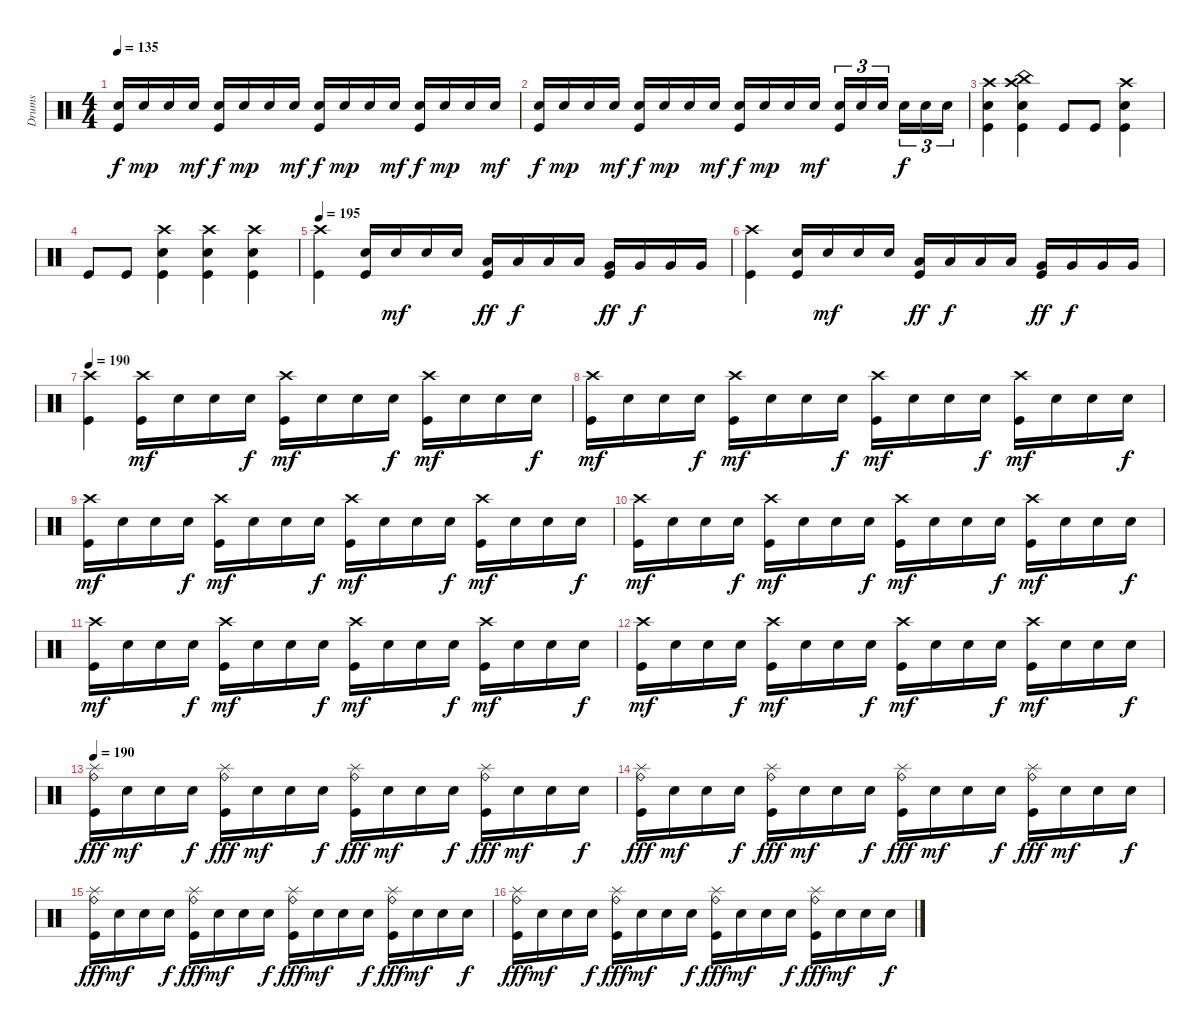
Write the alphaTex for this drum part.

\track ("Drums" "Drums") {instrument percussion}
\staff {score}
\articulation defaults
\ts (4 4)
\tempo 135
\clef neutral
\ks c
("Electric Snare (hit)" "Kick (hit)").16{dy f} "Electric Snare (hit)".16{dy mp} "Electric Snare (hit)".16 "Electric Snare (hit)".16{dy mf} ("Electric Snare (hit)" "Kick (hit)").16{dy f} "Electric Snare (hit)".16{dy mp} "Electric Snare (hit)".16 "Electric Snare (hit)".16{dy mf} ("Electric Snare (hit)" "Kick (hit)").16{dy f} "Electric Snare (hit)".16{dy mp} "Electric Snare (hit)".16 "Electric Snare (hit)".16{dy mf} ("Electric Snare (hit)" "Kick (hit)").16{dy f} "Electric Snare (hit)".16{dy mp} "Electric Snare (hit)".16 "Electric Snare (hit)".16{dy mf} |
("Electric Snare (hit)" "Kick (hit)").16{dy f} "Electric Snare (hit)".16{dy mp} "Electric Snare (hit)".16 "Electric Snare (hit)".16{dy mf} ("Electric Snare (hit)" "Kick (hit)").16{dy f} "Electric Snare (hit)".16{dy mp} "Electric Snare (hit)".16 "Electric Snare (hit)".16{dy mf} ("Electric Snare (hit)" "Kick (hit)").16{dy f} "Electric Snare (hit)".16{dy mp} "Electric Snare (hit)".16 "Electric Snare (hit)".16{dy mf} ("Electric Snare (hit)" "Kick (hit)").16{tu (3 2)} "Electric Snare (hit)".16{tu (3 2)} "Electric Snare (hit)".16{tu (3 2)} "Electric Snare (hit)".16{tu (3 2) dy f} "Electric Snare (hit)".16{tu (3 2)} "Electric Snare (hit)".16{tu (3 2)} |
("Crash high (hit)" "Electric Snare (hit)" "Kick (hit)").4 ("Crash high (hit)" "China (hit)" "Electric Snare (hit)" "Kick (hit)").4 "Kick (hit)".8 "Kick (hit)".8 ("Crash high (hit)" "Electric Snare (hit)" "Kick (hit)").4 |
"Kick (hit)".8 "Kick (hit)".8 ("Crash high (hit)" "Electric Snare (hit)" "Kick (hit)").4 ("Crash high (hit)" "Electric Snare (hit)" "Kick (hit)").4 ("Crash high (hit)" "Electric Snare (hit)" "Kick (hit)").4 |
\tempo 195
("Crash high (hit)" "Kick (hit)").4 ("Electric Snare (hit)" "Kick (hit)").16 "Electric Snare (hit)".16{dy mf} "Electric Snare (hit)".16 "Electric Snare (hit)".16 ("Low Tom (hit)" "Kick (hit)").16{dy ff} "Low Tom (hit)".16{dy f} "Low Tom (hit)".16 "Low Tom (hit)".16 ("Very Low Tom (hit)" "Kick (hit)").16{dy ff} "Very Low Tom (hit)".16{dy f} "Very Low Tom (hit)".16 "Very Low Tom (hit)".16 |
("Crash high (hit)" "Kick (hit)").4 ("Electric Snare (hit)" "Kick (hit)").16 "Electric Snare (hit)".16{dy mf} "Electric Snare (hit)".16 "Electric Snare (hit)".16 ("Low Tom (hit)" "Kick (hit)").16{dy ff} "Low Tom (hit)".16{dy f} "Low Tom (hit)".16 "Low Tom (hit)".16 ("Very Low Tom (hit)" "Kick (hit)").16{dy ff} "Very Low Tom (hit)".16{dy f} "Very Low Tom (hit)".16 "Very Low Tom (hit)".16 |
\tempo 190
("Crash high (hit)" "Kick (hit)").4 ("Crash high (hit)" "Kick (hit)").16{dy mf} "Electric Snare (hit)".16 "Electric Snare (hit)".16 "Electric Snare (hit)".16{dy f} ("Crash high (hit)" "Kick (hit)").16{dy mf} "Electric Snare (hit)".16 "Electric Snare (hit)".16 "Electric Snare (hit)".16{dy f} ("Crash high (hit)" "Kick (hit)").16{dy mf} "Electric Snare (hit)".16 "Electric Snare (hit)".16 "Electric Snare (hit)".16{dy f} |
("Crash high (hit)" "Kick (hit)").16{dy mf} "Electric Snare (hit)".16 "Electric Snare (hit)".16 "Electric Snare (hit)".16{dy f} ("Crash high (hit)" "Kick (hit)").16{dy mf} "Electric Snare (hit)".16 "Electric Snare (hit)".16 "Electric Snare (hit)".16{dy f} ("Crash high (hit)" "Kick (hit)").16{dy mf} "Electric Snare (hit)".16 "Electric Snare (hit)".16 "Electric Snare (hit)".16{dy f} ("Crash high (hit)" "Kick (hit)").16{dy mf} "Electric Snare (hit)".16 "Electric Snare (hit)".16 "Electric Snare (hit)".16{dy f} |
("Crash high (hit)" "Kick (hit)").16{dy mf} "Electric Snare (hit)".16 "Electric Snare (hit)".16 "Electric Snare (hit)".16{dy f} ("Crash high (hit)" "Kick (hit)").16{dy mf} "Electric Snare (hit)".16 "Electric Snare (hit)".16 "Electric Snare (hit)".16{dy f} ("Crash high (hit)" "Kick (hit)").16{dy mf} "Electric Snare (hit)".16 "Electric Snare (hit)".16 "Electric Snare (hit)".16{dy f} ("Crash high (hit)" "Kick (hit)").16{dy mf} "Electric Snare (hit)".16 "Electric Snare (hit)".16 "Electric Snare (hit)".16{dy f} |
("Crash high (hit)" "Kick (hit)").16{dy mf} "Electric Snare (hit)".16 "Electric Snare (hit)".16 "Electric Snare (hit)".16{dy f} ("Crash high (hit)" "Kick (hit)").16{dy mf} "Electric Snare (hit)".16 "Electric Snare (hit)".16 "Electric Snare (hit)".16{dy f} ("Crash high (hit)" "Kick (hit)").16{dy mf} "Electric Snare (hit)".16 "Electric Snare (hit)".16 "Electric Snare (hit)".16{dy f} ("Crash high (hit)" "Kick (hit)").16{dy mf} "Electric Snare (hit)".16 "Electric Snare (hit)".16 "Electric Snare (hit)".16{dy f} |
("Crash high (hit)" "Kick (hit)").16{dy mf} "Electric Snare (hit)".16 "Electric Snare (hit)".16 "Electric Snare (hit)".16{dy f} ("Crash high (hit)" "Kick (hit)").16{dy mf} "Electric Snare (hit)".16 "Electric Snare (hit)".16 "Electric Snare (hit)".16{dy f} ("Crash high (hit)" "Kick (hit)").16{dy mf} "Electric Snare (hit)".16 "Electric Snare (hit)".16 "Electric Snare (hit)".16{dy f} ("Crash high (hit)" "Kick (hit)").16{dy mf} "Electric Snare (hit)".16 "Electric Snare (hit)".16 "Electric Snare (hit)".16{dy f} |
("Crash high (hit)" "Kick (hit)").16{dy mf} "Electric Snare (hit)".16 "Electric Snare (hit)".16 "Electric Snare (hit)".16{dy f} ("Crash high (hit)" "Kick (hit)").16{dy mf} "Electric Snare (hit)".16 "Electric Snare (hit)".16 "Electric Snare (hit)".16{dy f} ("Crash high (hit)" "Kick (hit)").16{dy mf} "Electric Snare (hit)".16 "Electric Snare (hit)".16 "Electric Snare (hit)".16{dy f} ("Crash high (hit)" "Kick (hit)").16{dy mf} "Electric Snare (hit)".16 "Electric Snare (hit)".16 "Electric Snare (hit)".16{dy f} |
\tempo 190
("Splash (hit)" "Ride (bell)" "Kick (hit)").16{dy fff} "Electric Snare (hit)".16{dy mf} "Electric Snare (hit)".16 "Electric Snare (hit)".16{dy f} ("Splash (hit)" "Ride (bell)" "Kick (hit)").16{dy fff} "Electric Snare (hit)".16{dy mf} "Electric Snare (hit)".16 "Electric Snare (hit)".16{dy f} ("Splash (hit)" "Ride (bell)" "Kick (hit)").16{dy fff} "Electric Snare (hit)".16{dy mf} "Electric Snare (hit)".16 "Electric Snare (hit)".16{dy f} ("Splash (hit)" "Ride (bell)" "Kick (hit)").16{dy fff} "Electric Snare (hit)".16{dy mf} "Electric Snare (hit)".16 "Electric Snare (hit)".16{dy f} |
("Splash (hit)" "Ride (bell)" "Kick (hit)").16{dy fff} "Electric Snare (hit)".16{dy mf} "Electric Snare (hit)".16 "Electric Snare (hit)".16{dy f} ("Splash (hit)" "Ride (bell)" "Kick (hit)").16{dy fff} "Electric Snare (hit)".16{dy mf} "Electric Snare (hit)".16 "Electric Snare (hit)".16{dy f} ("Splash (hit)" "Ride (bell)" "Kick (hit)").16{dy fff} "Electric Snare (hit)".16{dy mf} "Electric Snare (hit)".16 "Electric Snare (hit)".16{dy f} ("Splash (hit)" "Ride (bell)" "Kick (hit)").16{dy fff} "Electric Snare (hit)".16{dy mf} "Electric Snare (hit)".16 "Electric Snare (hit)".16{dy f} |
("Splash (hit)" "Ride (bell)" "Kick (hit)").16{dy fff} "Electric Snare (hit)".16{dy mf} "Electric Snare (hit)".16 "Electric Snare (hit)".16{dy f} ("Splash (hit)" "Ride (bell)" "Kick (hit)").16{dy fff} "Electric Snare (hit)".16{dy mf} "Electric Snare (hit)".16 "Electric Snare (hit)".16{dy f} ("Splash (hit)" "Ride (bell)" "Kick (hit)").16{dy fff} "Electric Snare (hit)".16{dy mf} "Electric Snare (hit)".16 "Electric Snare (hit)".16{dy f} ("Splash (hit)" "Ride (bell)" "Kick (hit)").16{dy fff} "Electric Snare (hit)".16{dy mf} "Electric Snare (hit)".16 "Electric Snare (hit)".16{dy f} |
("Splash (hit)" "Ride (bell)" "Kick (hit)").16{dy fff} "Electric Snare (hit)".16{dy mf} "Electric Snare (hit)".16 "Electric Snare (hit)".16{dy f} ("Splash (hit)" "Ride (bell)" "Kick (hit)").16{dy fff} "Electric Snare (hit)".16{dy mf} "Electric Snare (hit)".16 "Electric Snare (hit)".16{dy f} ("Splash (hit)" "Ride (bell)" "Kick (hit)").16{dy fff} "Electric Snare (hit)".16{dy mf} "Electric Snare (hit)".16 "Electric Snare (hit)".16{dy f} ("Splash (hit)" "Ride (bell)" "Kick (hit)").16{dy fff} "Electric Snare (hit)".16{dy mf} "Electric Snare (hit)".16 "Electric Snare (hit)".16{dy f}
